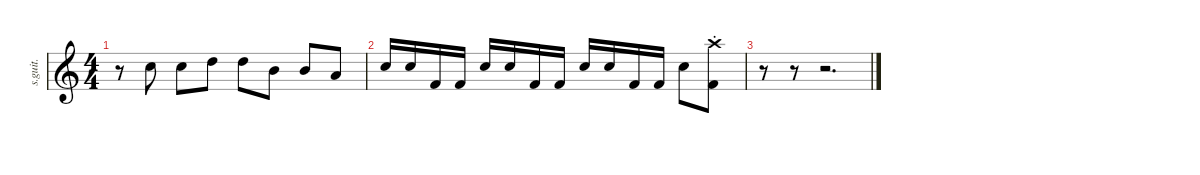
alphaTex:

\defaultSystemsLayout 4
\hideDynamics
\bracketExtendMode nobrackets
\track ("Nick Menza (Drums)" "s.guit.") {instrument percussion}
\staff {score}
\articulation defaults
\ts (4 4)
\tempo (196 hide)
\clef g2
\ks c
r.8{dy f} "Snare (hit) 2".8{lyrics (0 "") lyrics (1 "") lyrics (2 "") lyrics (3 "") lyrics (4 "")} "Snare (hit) 2".8{lyrics (0 "") lyrics (1 "") lyrics (2 "") lyrics (3 "") lyrics (4 "")} "High Tom (hit)".8{lyrics (0 "") lyrics (1 "") lyrics (2 "") lyrics (3 "") lyrics (4 "") dy fff} "High Tom (hit)".8{lyrics (0 "") lyrics (1 "") lyrics (2 "") lyrics (3 "") lyrics (4 "")} "Mid Tom (hit)".8{lyrics (0 "") lyrics (1 "") lyrics (2 "") lyrics (3 "") lyrics (4 "")} "Mid Tom (hit)".8{lyrics (0 "") lyrics (1 "") lyrics (2 "") lyrics (3 "") lyrics (4 "")} "Low Tom (hit)".8{lyrics (0 "") lyrics (1 "") lyrics (2 "") lyrics (3 "") lyrics (4 "")} |
"Snare (hit) 2".16{lyrics (0 "") lyrics (1 "") lyrics (2 "") lyrics (3 "") lyrics (4 "") dy f} "Snare (hit) 2".16{lyrics (0 "") lyrics (1 "") lyrics (2 "") lyrics (3 "") lyrics (4 "")} "Kick (hit) 2".16{lyrics (0 "") lyrics (1 "") lyrics (2 "") lyrics (3 "") lyrics (4 "") dy fff} "Kick (hit) 2".16{lyrics (0 "") lyrics (1 "") lyrics (2 "") lyrics (3 "") lyrics (4 "")} "Snare (hit) 2".16{lyrics (0 "") lyrics (1 "") lyrics (2 "") lyrics (3 "") lyrics (4 "") dy f} "Snare (hit) 2".16{lyrics (0 "") lyrics (1 "") lyrics (2 "") lyrics (3 "") lyrics (4 "")} "Kick (hit) 2".16{lyrics (0 "") lyrics (1 "") lyrics (2 "") lyrics (3 "") lyrics (4 "") dy fff} "Kick (hit) 2".16{lyrics (0 "") lyrics (1 "") lyrics (2 "") lyrics (3 "") lyrics (4 "")} "Snare (hit) 2".16{lyrics (0 "") lyrics (1 "") lyrics (2 "") lyrics (3 "") lyrics (4 "") dy f} "Snare (hit) 2".16{lyrics (0 "") lyrics (1 "") lyrics (2 "") lyrics (3 "") lyrics (4 "")} "Kick (hit) 2".16{lyrics (0 "") lyrics (1 "") lyrics (2 "") lyrics (3 "") lyrics (4 "") dy fff} "Kick (hit) 2".16{lyrics (0 "") lyrics (1 "") lyrics (2 "") lyrics (3 "") lyrics (4 "")} "Snare (hit) 2".8{lyrics (0 "") lyrics (1 "") lyrics (2 "") lyrics (3 "") lyrics (4 "") dy f} ("Crash high (choke)" "Kick (hit) 2").8{lyrics (0 "") lyrics (1 "") lyrics (2 "") lyrics (3 "") lyrics (4 "")} |
r.8 r.8 r.2{d}
